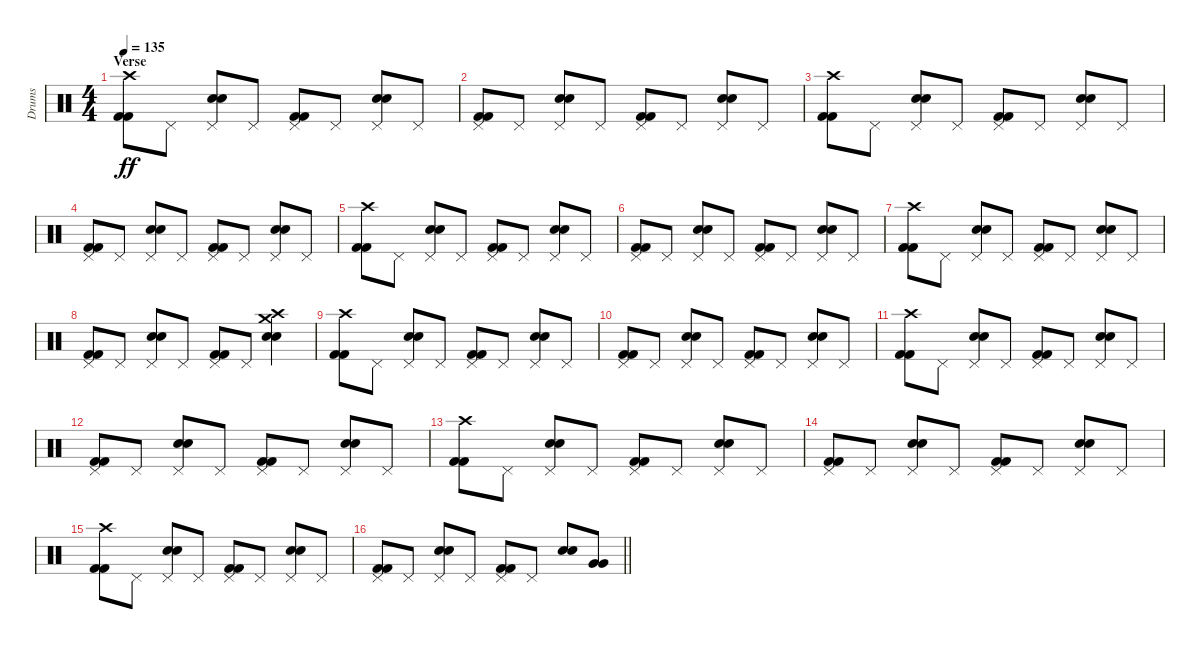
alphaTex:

\track ("Drums" "Drums") {instrument percussion}
\staff {score}
\articulation defaults
\ts (4 4)
\section ("" "Verse")
\tempo 135
\clef neutral
\ks c
("Crash high (hit)" "Kick (hit) 2" "Kick (hit) 2").8{dy ff} "Pedal Hi-Hat (hit)".8 ("Pedal Hi-Hat (hit)" "Electric Snare (hit)" "Electric Snare (hit)").8 "Pedal Hi-Hat (hit)".8 ("Pedal Hi-Hat (hit)" "Kick (hit) 2" "Kick (hit) 2").8 "Pedal Hi-Hat (hit)".8 ("Pedal Hi-Hat (hit)" "Electric Snare (hit)" "Electric Snare (hit)").8 "Pedal Hi-Hat (hit)".8 |
("Pedal Hi-Hat (hit)" "Kick (hit) 2" "Kick (hit) 2").8 "Pedal Hi-Hat (hit)".8 ("Pedal Hi-Hat (hit)" "Electric Snare (hit)" "Electric Snare (hit)").8 "Pedal Hi-Hat (hit)".8 ("Pedal Hi-Hat (hit)" "Kick (hit) 2" "Kick (hit) 2").8 "Pedal Hi-Hat (hit)".8 ("Pedal Hi-Hat (hit)" "Electric Snare (hit)" "Electric Snare (hit)").8 "Pedal Hi-Hat (hit)".8 |
("Crash high (hit)" "Kick (hit) 2" "Kick (hit) 2").8 "Pedal Hi-Hat (hit)".8 ("Pedal Hi-Hat (hit)" "Electric Snare (hit)" "Electric Snare (hit)").8 "Pedal Hi-Hat (hit)".8 ("Pedal Hi-Hat (hit)" "Kick (hit) 2" "Kick (hit) 2").8 "Pedal Hi-Hat (hit)".8 ("Pedal Hi-Hat (hit)" "Electric Snare (hit)" "Electric Snare (hit)").8 "Pedal Hi-Hat (hit)".8 |
("Pedal Hi-Hat (hit)" "Kick (hit) 2" "Kick (hit) 2").8 "Pedal Hi-Hat (hit)".8 ("Pedal Hi-Hat (hit)" "Electric Snare (hit)" "Electric Snare (hit)").8 "Pedal Hi-Hat (hit)".8 ("Pedal Hi-Hat (hit)" "Kick (hit) 2" "Kick (hit) 2").8 "Pedal Hi-Hat (hit)".8 ("Pedal Hi-Hat (hit)" "Electric Snare (hit)" "Electric Snare (hit)").8 "Pedal Hi-Hat (hit)".8 |
("Crash high (hit)" "Kick (hit) 2" "Kick (hit) 2").8 "Pedal Hi-Hat (hit)".8 ("Pedal Hi-Hat (hit)" "Electric Snare (hit)" "Electric Snare (hit)").8 "Pedal Hi-Hat (hit)".8 ("Pedal Hi-Hat (hit)" "Kick (hit) 2" "Kick (hit) 2").8 "Pedal Hi-Hat (hit)".8 ("Pedal Hi-Hat (hit)" "Electric Snare (hit)" "Electric Snare (hit)").8 "Pedal Hi-Hat (hit)".8 |
("Pedal Hi-Hat (hit)" "Kick (hit) 2" "Kick (hit) 2").8 "Pedal Hi-Hat (hit)".8 ("Pedal Hi-Hat (hit)" "Electric Snare (hit)" "Electric Snare (hit)").8 "Pedal Hi-Hat (hit)".8 ("Pedal Hi-Hat (hit)" "Kick (hit) 2" "Kick (hit) 2").8 "Pedal Hi-Hat (hit)".8 ("Pedal Hi-Hat (hit)" "Electric Snare (hit)" "Electric Snare (hit)").8 "Pedal Hi-Hat (hit)".8 |
("Crash high (hit)" "Kick (hit) 2" "Kick (hit) 2").8 "Pedal Hi-Hat (hit)".8 ("Pedal Hi-Hat (hit)" "Electric Snare (hit)" "Electric Snare (hit)").8 "Pedal Hi-Hat (hit)".8 ("Pedal Hi-Hat (hit)" "Kick (hit) 2" "Kick (hit) 2").8 "Pedal Hi-Hat (hit)".8 ("Pedal Hi-Hat (hit)" "Electric Snare (hit)" "Electric Snare (hit)").8 "Pedal Hi-Hat (hit)".8 |
("Pedal Hi-Hat (hit)" "Kick (hit) 2" "Kick (hit) 2").8 "Pedal Hi-Hat (hit)".8 ("Pedal Hi-Hat (hit)" "Electric Snare (hit)" "Electric Snare (hit)").8 "Pedal Hi-Hat (hit)".8 ("Pedal Hi-Hat (hit)" "Kick (hit) 2" "Kick (hit) 2").8 "Pedal Hi-Hat (hit)".8 ("Crash medium (hit)" "Crash high (hit)" "Electric Snare (hit)" "Electric Snare (hit)").4 |
("Crash high (hit)" "Kick (hit) 2" "Kick (hit) 2").8 "Pedal Hi-Hat (hit)".8 ("Pedal Hi-Hat (hit)" "Electric Snare (hit)" "Electric Snare (hit)").8 "Pedal Hi-Hat (hit)".8 ("Pedal Hi-Hat (hit)" "Kick (hit) 2" "Kick (hit) 2").8 "Pedal Hi-Hat (hit)".8 ("Pedal Hi-Hat (hit)" "Electric Snare (hit)" "Electric Snare (hit)").8 "Pedal Hi-Hat (hit)".8 |
("Pedal Hi-Hat (hit)" "Kick (hit) 2" "Kick (hit) 2").8 "Pedal Hi-Hat (hit)".8 ("Pedal Hi-Hat (hit)" "Electric Snare (hit)" "Electric Snare (hit)").8 "Pedal Hi-Hat (hit)".8 ("Pedal Hi-Hat (hit)" "Kick (hit) 2" "Kick (hit) 2").8 "Pedal Hi-Hat (hit)".8 ("Pedal Hi-Hat (hit)" "Electric Snare (hit)" "Electric Snare (hit)").8 "Pedal Hi-Hat (hit)".8 |
("Crash high (hit)" "Kick (hit) 2" "Kick (hit) 2").8 "Pedal Hi-Hat (hit)".8 ("Pedal Hi-Hat (hit)" "Electric Snare (hit)" "Electric Snare (hit)").8 "Pedal Hi-Hat (hit)".8 ("Pedal Hi-Hat (hit)" "Kick (hit) 2" "Kick (hit) 2").8 "Pedal Hi-Hat (hit)".8 ("Pedal Hi-Hat (hit)" "Electric Snare (hit)" "Electric Snare (hit)").8 "Pedal Hi-Hat (hit)".8 |
("Pedal Hi-Hat (hit)" "Kick (hit) 2" "Kick (hit) 2").8 "Pedal Hi-Hat (hit)".8 ("Pedal Hi-Hat (hit)" "Electric Snare (hit)" "Electric Snare (hit)").8 "Pedal Hi-Hat (hit)".8 ("Pedal Hi-Hat (hit)" "Kick (hit) 2" "Kick (hit) 2").8 "Pedal Hi-Hat (hit)".8 ("Pedal Hi-Hat (hit)" "Electric Snare (hit)" "Electric Snare (hit)").8 "Pedal Hi-Hat (hit)".8 |
("Crash high (hit)" "Kick (hit) 2" "Kick (hit) 2").8 "Pedal Hi-Hat (hit)".8 ("Pedal Hi-Hat (hit)" "Electric Snare (hit)" "Electric Snare (hit)").8 "Pedal Hi-Hat (hit)".8 ("Pedal Hi-Hat (hit)" "Kick (hit) 2" "Kick (hit) 2").8 "Pedal Hi-Hat (hit)".8 ("Pedal Hi-Hat (hit)" "Electric Snare (hit)" "Electric Snare (hit)").8 "Pedal Hi-Hat (hit)".8 |
("Pedal Hi-Hat (hit)" "Kick (hit) 2" "Kick (hit) 2").8 "Pedal Hi-Hat (hit)".8 ("Pedal Hi-Hat (hit)" "Electric Snare (hit)" "Electric Snare (hit)").8 "Pedal Hi-Hat (hit)".8 ("Pedal Hi-Hat (hit)" "Kick (hit) 2" "Kick (hit) 2").8 "Pedal Hi-Hat (hit)".8 ("Pedal Hi-Hat (hit)" "Electric Snare (hit)" "Electric Snare (hit)").8 "Pedal Hi-Hat (hit)".8 |
("Crash high (hit)" "Kick (hit) 2" "Kick (hit) 2").8 "Pedal Hi-Hat (hit)".8 ("Pedal Hi-Hat (hit)" "Electric Snare (hit)" "Electric Snare (hit)").8 "Pedal Hi-Hat (hit)".8 ("Pedal Hi-Hat (hit)" "Kick (hit) 2" "Kick (hit) 2").8 "Pedal Hi-Hat (hit)".8 ("Pedal Hi-Hat (hit)" "Electric Snare (hit)" "Electric Snare (hit)").8 "Pedal Hi-Hat (hit)".8 |
\barLineRight lightlight
("Pedal Hi-Hat (hit)" "Kick (hit) 2" "Kick (hit) 2").8 "Pedal Hi-Hat (hit)".8 ("Pedal Hi-Hat (hit)" "Electric Snare (hit)" "Electric Snare (hit)").8 "Pedal Hi-Hat (hit)".8 ("Pedal Hi-Hat (hit)" "Kick (hit) 2" "Kick (hit) 2").8 "Pedal Hi-Hat (hit)".8 ("Electric Snare (hit)" "Electric Snare (hit)").8 ("Very Low Tom (hit)" "Very Low Tom (hit)").8
